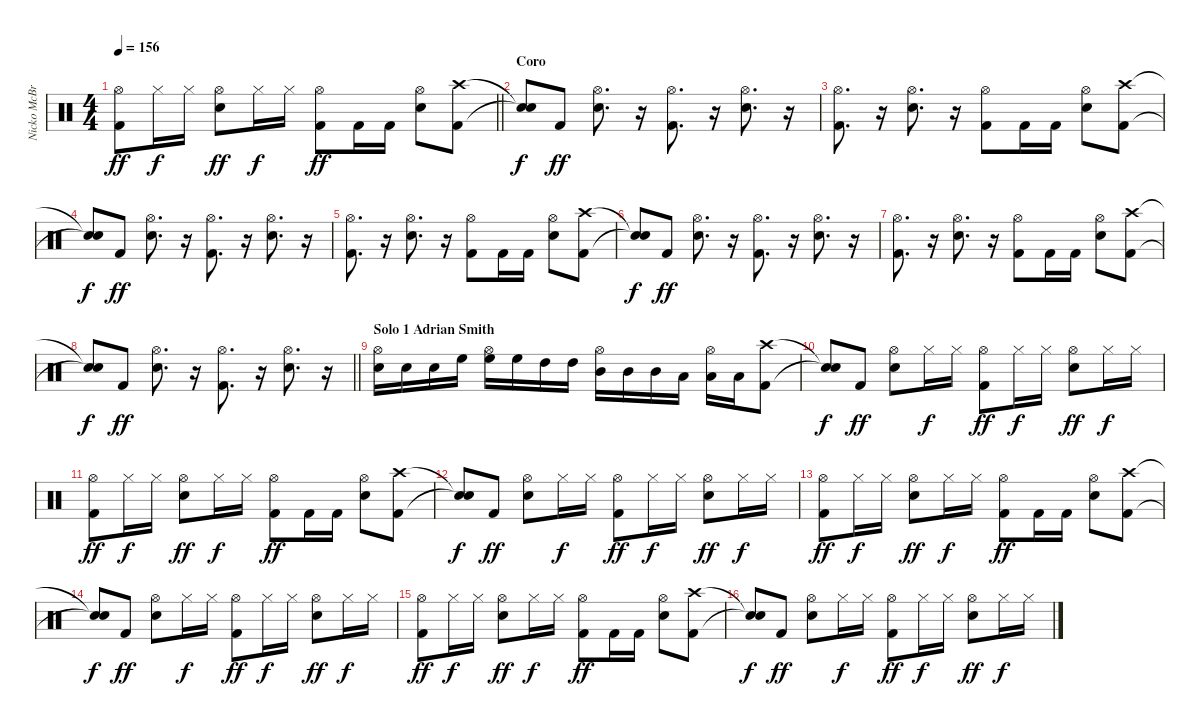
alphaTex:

\track ("Nicko McBrain" "Nicko McBr") {instrument percussion}
\staff {score}
\articulation defaults
\ts (4 4)
\tempo 156
\clef neutral
\barLineRight lightlight
\ks c
("Kick (hit) 2" "Hi-Hat (open)").8{dy ff} "Hi-Hat (closed)".16{dy f} "Hi-Hat (closed)".16 ("Snare (hit) 2" "Hi-Hat (open)").8{dy ff} "Hi-Hat (closed)".16{dy f} "Hi-Hat (closed)".16 ("Kick (hit) 2" "Hi-Hat (open)").8{dy ff} "Kick (hit) 2".16 "Kick (hit) 2".16 ("Snare (hit) 2" "Hi-Hat (open)").8 ("Kick (hit) 2" "Crash high (hit)").8 |
\section ("" "Coro")
("Snare (hit)"{t} "Snare (hit)"{t}).8{dy f} "Kick (hit) 2".8{dy ff} ("Snare (hit) 2" "Hi-Hat (open)").8{d} r.16 ("Kick (hit) 2" "Hi-Hat (open)").8{d} r.16 ("Snare (hit) 2" "Hi-Hat (open)").8{d} r.16 |
("Kick (hit) 2" "Hi-Hat (open)").8{d} r.16 ("Snare (hit) 2" "Hi-Hat (open)").8{d} r.16 ("Kick (hit) 2" "Hi-Hat (open)").8 "Kick (hit) 2".16 "Kick (hit) 2".16 ("Snare (hit) 2" "Hi-Hat (open)").8 ("Kick (hit) 2" "Crash high (hit)").8 |
("Snare (hit)"{t} "Snare (hit)"{t}).8{dy f} "Kick (hit) 2".8{dy ff} ("Snare (hit) 2" "Hi-Hat (open)").8{d} r.16 ("Kick (hit) 2" "Hi-Hat (open)").8{d} r.16 ("Snare (hit) 2" "Hi-Hat (open)").8{d} r.16 |
("Kick (hit) 2" "Hi-Hat (open)").8{d} r.16 ("Snare (hit) 2" "Hi-Hat (open)").8{d} r.16 ("Kick (hit) 2" "Hi-Hat (open)").8 "Kick (hit) 2".16 "Kick (hit) 2".16 ("Snare (hit) 2" "Hi-Hat (open)").8 ("Kick (hit) 2" "Crash high (hit)").8 |
("Snare (hit)"{t} "Snare (hit)"{t}).8{dy f} "Kick (hit) 2".8{dy ff} ("Snare (hit) 2" "Hi-Hat (open)").8{d} r.16 ("Kick (hit) 2" "Hi-Hat (open)").8{d} r.16 ("Snare (hit) 2" "Hi-Hat (open)").8{d} r.16 |
("Kick (hit) 2" "Hi-Hat (open)").8{d} r.16 ("Snare (hit) 2" "Hi-Hat (open)").8{d} r.16 ("Kick (hit) 2" "Hi-Hat (open)").8 "Kick (hit) 2".16 "Kick (hit) 2".16 ("Snare (hit) 2" "Hi-Hat (open)").8 ("Kick (hit) 2" "Crash high (hit)").8 |
\barLineRight lightlight
("Snare (hit)"{t} "Snare (hit)"{t}).8{dy f} "Kick (hit) 2".8{dy ff} ("Snare (hit) 2" "Hi-Hat (open)").8{d} r.16 ("Kick (hit) 2" "Hi-Hat (open)").8{d} r.16 ("Snare (hit) 2" "Hi-Hat (open)").8{d} r.16 |
\section ("" "Solo 1 Adrian Smith")
("Snare (hit) 2" "Hi-Hat (open)").16 "Snare (hit) 2".16 "Snare (hit) 2".16 "High Floor Tom (hit)".16 ("Hi-Hat (open)" "High Floor Tom (hit)").16 "High Floor Tom (hit)".16 "High Tom (hit)".16 "High Tom (hit)".16 ("Hi-Hat (open)" "Mid Tom (hit)").16 "Mid Tom (hit)".16 "Mid Tom (hit)".16 "Low Tom (hit)".16 ("Low Tom (hit)" "Hi-Hat (open)").16 "Low Tom (hit)".16 ("Kick (hit) 2" "Crash high (hit)").8 |
("Snare (hit)"{t} "Snare (hit)"{t}).8{dy f} "Kick (hit) 2".8{dy ff} ("Snare (hit) 2" "Hi-Hat (open)").8 "Hi-Hat (closed)".16{dy f} "Hi-Hat (closed)".16 ("Kick (hit) 2" "Hi-Hat (open)").8{dy ff} "Hi-Hat (closed)".16{dy f} "Hi-Hat (closed)".16 ("Snare (hit) 2" "Hi-Hat (open)").8{dy ff} "Hi-Hat (closed)".16{dy f} "Hi-Hat (closed)".16 |
("Kick (hit) 2" "Hi-Hat (open)").8{dy ff} "Hi-Hat (closed)".16{dy f} "Hi-Hat (closed)".16 ("Snare (hit) 2" "Hi-Hat (open)").8{dy ff} "Hi-Hat (closed)".16{dy f} "Hi-Hat (closed)".16 ("Kick (hit) 2" "Hi-Hat (open)").8{dy ff} "Kick (hit) 2".16 "Kick (hit) 2".16 ("Snare (hit) 2" "Hi-Hat (open)").8 ("Kick (hit) 2" "Crash high (hit)").8 |
("Snare (hit)"{t} "Snare (hit)"{t}).8{dy f} "Kick (hit) 2".8{dy ff} ("Snare (hit) 2" "Hi-Hat (open)").8 "Hi-Hat (closed)".16{dy f} "Hi-Hat (closed)".16 ("Kick (hit) 2" "Hi-Hat (open)").8{dy ff} "Hi-Hat (closed)".16{dy f} "Hi-Hat (closed)".16 ("Snare (hit) 2" "Hi-Hat (open)").8{dy ff} "Hi-Hat (closed)".16{dy f} "Hi-Hat (closed)".16 |
("Kick (hit) 2" "Hi-Hat (open)").8{dy ff} "Hi-Hat (closed)".16{dy f} "Hi-Hat (closed)".16 ("Snare (hit) 2" "Hi-Hat (open)").8{dy ff} "Hi-Hat (closed)".16{dy f} "Hi-Hat (closed)".16 ("Kick (hit) 2" "Hi-Hat (open)").8{dy ff} "Kick (hit) 2".16 "Kick (hit) 2".16 ("Snare (hit) 2" "Hi-Hat (open)").8 ("Kick (hit) 2" "Crash high (hit)").8 |
("Snare (hit)"{t} "Snare (hit)"{t}).8{dy f} "Kick (hit) 2".8{dy ff} ("Snare (hit) 2" "Hi-Hat (open)").8 "Hi-Hat (closed)".16{dy f} "Hi-Hat (closed)".16 ("Kick (hit) 2" "Hi-Hat (open)").8{dy ff} "Hi-Hat (closed)".16{dy f} "Hi-Hat (closed)".16 ("Snare (hit) 2" "Hi-Hat (open)").8{dy ff} "Hi-Hat (closed)".16{dy f} "Hi-Hat (closed)".16 |
("Kick (hit) 2" "Hi-Hat (open)").8{dy ff} "Hi-Hat (closed)".16{dy f} "Hi-Hat (closed)".16 ("Snare (hit) 2" "Hi-Hat (open)").8{dy ff} "Hi-Hat (closed)".16{dy f} "Hi-Hat (closed)".16 ("Kick (hit) 2" "Hi-Hat (open)").8{dy ff} "Kick (hit) 2".16 "Kick (hit) 2".16 ("Snare (hit) 2" "Hi-Hat (open)").8 ("Kick (hit) 2" "Crash high (hit)").8 |
("Snare (hit)"{t} "Snare (hit)"{t}).8{dy f} "Kick (hit) 2".8{dy ff} ("Snare (hit) 2" "Hi-Hat (open)").8 "Hi-Hat (closed)".16{dy f} "Hi-Hat (closed)".16 ("Kick (hit) 2" "Hi-Hat (open)").8{dy ff} "Hi-Hat (closed)".16{dy f} "Hi-Hat (closed)".16 ("Snare (hit) 2" "Hi-Hat (open)").8{dy ff} "Hi-Hat (closed)".16{dy f} "Hi-Hat (closed)".16
